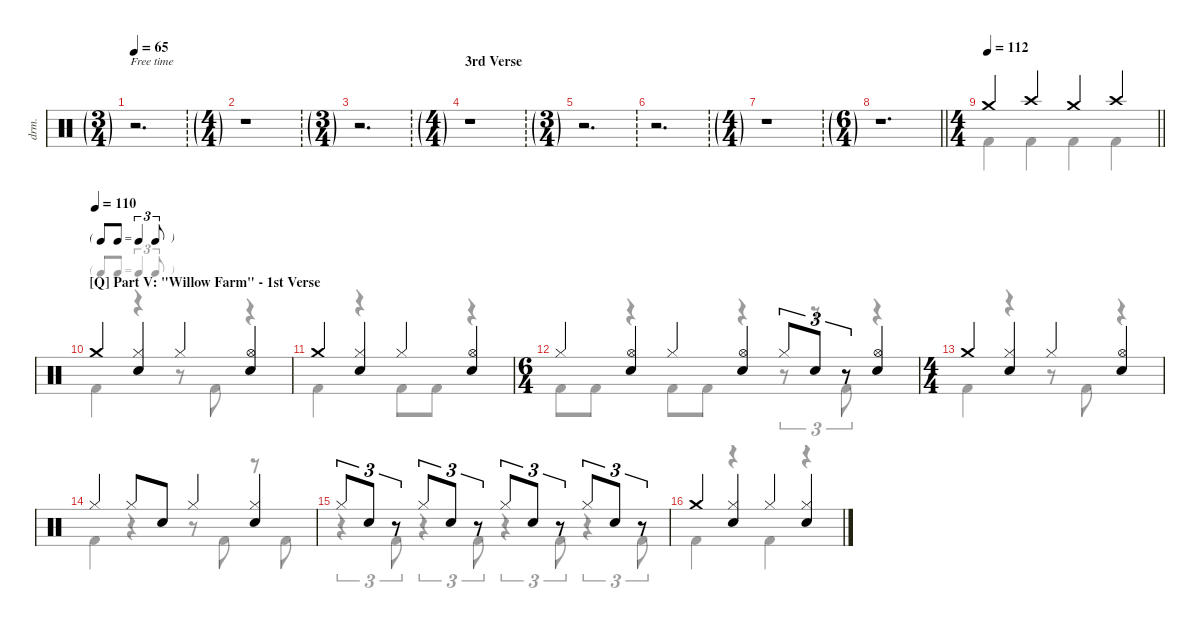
\defaultSystemsLayout 4
\hideDynamics
\bracketExtendMode nobrackets
\track ("Drums" "drm.") {instrument percussion}
\staff {score}
\articulation defaults
\voice
\ts (3 4)
\beaming (8 2 2 2)
\ft
\tempo 65
\clef neutral
\ks c
r.2{d dy mf} |
\ts (4 4)
\beaming (8 2 2 2 2)
\ft
r.1 |
\ts (3 4)
\beaming (8 2 2 2)
\ft
r.2{d} |
\ts (4 4)
\beaming (8 2 2 2 2)
\ft
\section ("" "3rd Verse")
r.1 |
\ts (3 4)
\beaming (8 2 2 2)
\ft
r.2{d} |
\ft
r.2{d} |
\ts (4 4)
\beaming (8 2 2 2 2)
\ft
r.1 |
\ts (6 4)
\beaming (8 6 6)
\ft
\barLineRight lightlight
r.1{d} |
\ts (4 4)
\beaming (8 2 2 2 2)
\tempo 112
\barLineRight lightlight "Crash medium (hit)".4 "Crash high (hit)".4 "Crash medium (hit)".4 "Crash high (hit)".4
|
\tf triplet8th
\section ("Q" "Part V: \"Willow Farm\" - 1st Verse")
\tempo (110)
"Crash medium (hit)".4 ("Hi-Hat (closed)" "Snare (hit) 2").4 "Hi-Hat (closed)".4 ("Hi-Hat (open)" "Snare (hit) 2").4 |
"Crash medium (hit)".4 ("Hi-Hat (closed)" "Snare (hit) 2").4 "Hi-Hat (closed)".4 ("Hi-Hat (open)" "Snare (hit) 2").4 |
\ts (6 4)
\beaming (8 6 6)
"Hi-Hat (closed)".4 ("Hi-Hat (open)" "Snare (hit) 2").4 "Hi-Hat (closed)".4 ("Hi-Hat (open)" "Snare (hit) 2").4 "Hi-Hat (closed)".8{tu (3 2)} "Snare (hit) 2".8{tu (3 2)} r.8{tu (3 2)} ("Snare (hit) 2" "Hi-Hat (open)").4 |
\ts (4 4)
\beaming (8 2 2 2 2)
"Crash medium (hit)".4 ("Hi-Hat (closed)" "Snare (hit) 2").4 "Hi-Hat (closed)".4 ("Hi-Hat (open)" "Snare (hit) 2").4 |
"Hi-Hat (closed)".4 "Hi-Hat (closed)".8 "Snare (hit) 2".8 "Hi-Hat (closed)".4 ("Hi-Hat (closed)" "Snare (hit) 2").4 |
"Hi-Hat (closed)".8{tu (3 2)} "Snare (hit) 2".8{tu (3 2)} r.8{tu (3 2)} "Hi-Hat (closed)".8{tu (3 2)} "Snare (hit) 2".8{tu (3 2)} r.8{tu (3 2)} "Hi-Hat (closed)".8{tu (3 2)} "Snare (hit) 2".8{tu (3 2)} r.8{tu (3 2)} "Hi-Hat (closed)".8{tu (3 2)} "Snare (hit) 2".8{tu (3 2)} r.8{tu (3 2)} |
"Crash medium (hit)".4 ("Hi-Hat (closed)" "Snare (hit) 2").4 "Hi-Hat (closed)".4 ("Hi-Hat (closed)" "Snare (hit) 2").4
\voice
\clef neutral
\ottava regular
\simile none
\ks c
|
|
|
|
|
|
|
\barLineRight lightlight
|
\barLineRight lightlight "Kick (hit) 2".4 "Kick (hit) 2".4 "Kick (hit) 2".4 "Kick (hit) 2".4
|
"Kick (hit) 2".4 r.4 r.8 "Kick (hit) 2".8 r.4 |
"Kick (hit) 2".4 r.4 "Kick (hit) 2".8 "Kick (hit) 2".8 r.4 |
"Kick (hit) 2".8 "Kick (hit) 2".8 r.4 "Kick (hit) 2".8 "Kick (hit) 2".8 r.4 r.8{tu (3 2)} r.8{tu (3 2)} "Kick (hit) 2".8{tu (3 2)} r.4 |
"Kick (hit) 2".4 r.4 r.8 "Kick (hit) 2".8 r.4 |
"Kick (hit) 2".4 r.4 r.8 "Kick (hit) 2".8 r.8 "Kick (hit) 2".8 |
r.4{tu (3 2)} "Kick (hit) 2".8{tu (3 2)} r.4{tu (3 2)} "Kick (hit) 2".8{tu (3 2)} r.4{tu (3 2)} "Kick (hit) 2".8{tu (3 2)} r.4{tu (3 2)} "Kick (hit) 2".8{tu (3 2)} |
"Kick (hit) 2".4 r.4 "Kick (hit) 2".4 r.4
